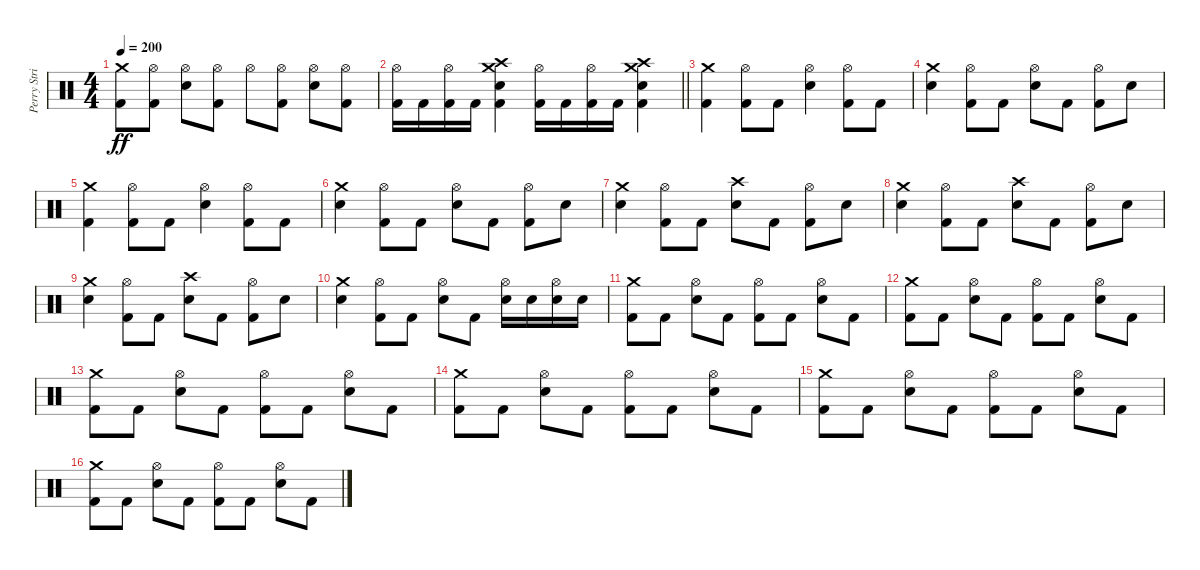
\track ("Perry Strickland" "Perry Stri") {instrument percussion}
\staff {score}
\articulation defaults
\ts (4 4)
\tempo 200
\clef neutral
\ks c
("Crash medium (hit)" "Kick (hit) 2").8{dy ff} ("Hi-Hat (open)" "Kick (hit) 2").8 ("Hi-Hat (open)" "Snare (hit) 2").8 ("Hi-Hat (open)" "Kick (hit) 2").8 "Hi-Hat (open)".8 ("Hi-Hat (open)" "Kick (hit) 2").8 ("Hi-Hat (open)" "Snare (hit) 2").8 ("Hi-Hat (open)" "Kick (hit) 2").8 |
\barLineRight lightlight
("Hi-Hat (open)" "Kick (hit) 2").16 "Kick (hit) 2".16 ("Hi-Hat (open)" "Kick (hit) 2").16 "Kick (hit) 2".16 ("Crash high (hit)" "Crash medium (hit)" "Snare (hit) 2" "Kick (hit) 2").4 ("Hi-Hat (open)" "Kick (hit) 2").16 "Kick (hit) 2".16 ("Hi-Hat (open)" "Kick (hit) 2").16 "Kick (hit) 2".16 ("Crash high (hit)" "Crash medium (hit)" "Snare (hit) 2" "Kick (hit) 2").4 |
("Crash medium (hit)" "Kick (hit) 2").4 ("Hi-Hat (open)" "Kick (hit) 2").8 "Kick (hit) 2".8 ("Hi-Hat (open)" "Snare (hit) 2").4 ("Hi-Hat (open)" "Kick (hit) 2").8 "Kick (hit) 2".8 |
("Crash medium (hit)" "Snare (hit) 2").4 ("Hi-Hat (open)" "Kick (hit) 2").8 "Kick (hit) 2".8 ("Hi-Hat (open)" "Snare (hit) 2").8 "Kick (hit) 2".8 ("Hi-Hat (open)" "Kick (hit) 2").8 "Snare (hit) 2".8 |
("Crash medium (hit)" "Kick (hit) 2").4 ("Hi-Hat (open)" "Kick (hit) 2").8 "Kick (hit) 2".8 ("Hi-Hat (open)" "Snare (hit) 2").4 ("Hi-Hat (open)" "Kick (hit) 2").8 "Kick (hit) 2".8 |
("Crash medium (hit)" "Snare (hit) 2").4 ("Hi-Hat (open)" "Kick (hit) 2").8 "Kick (hit) 2".8 ("Hi-Hat (open)" "Snare (hit) 2").8 "Kick (hit) 2".8 ("Hi-Hat (open)" "Kick (hit) 2").8 "Snare (hit) 2".8 |
("Crash medium (hit)" "Snare (hit) 2").4 ("Hi-Hat (open)" "Kick (hit) 2").8 "Kick (hit) 2".8 ("Crash high (hit)" "Snare (hit) 2").8 "Kick (hit) 2".8 ("Hi-Hat (open)" "Kick (hit) 2").8 "Snare (hit) 2".8 |
("Crash medium (hit)" "Snare (hit) 2").4 ("Hi-Hat (open)" "Kick (hit) 2").8 "Kick (hit) 2".8 ("Crash high (hit)" "Snare (hit) 2").8 "Kick (hit) 2".8 ("Hi-Hat (open)" "Kick (hit) 2").8 "Snare (hit) 2".8 |
("Crash medium (hit)" "Snare (hit) 2").4 ("Hi-Hat (open)" "Kick (hit) 2").8 "Kick (hit) 2".8 ("Crash high (hit)" "Snare (hit) 2").8 "Kick (hit) 2".8 ("Hi-Hat (open)" "Kick (hit) 2").8 "Snare (hit) 2".8 |
("Crash medium (hit)" "Snare (hit) 2").4 ("Hi-Hat (open)" "Kick (hit) 2").8 "Kick (hit) 2".8 ("Hi-Hat (open)" "Snare (hit) 2").8 "Kick (hit) 2".8 ("Hi-Hat (open)" "Snare (hit) 2").16 "Snare (hit) 2".16 ("Hi-Hat (open)" "Snare (hit) 2").16 "Snare (hit) 2".16 |
("Crash medium (hit)" "Kick (hit) 2").8 "Kick (hit) 2".8 ("Hi-Hat (open)" "Snare (hit) 2").8 "Kick (hit) 2".8 ("Hi-Hat (open)" "Kick (hit) 2").8 "Kick (hit) 2".8 ("Hi-Hat (open)" "Snare (hit) 2").8 "Kick (hit) 2".8 |
("Crash medium (hit)" "Kick (hit) 2").8 "Kick (hit) 2".8 ("Hi-Hat (open)" "Snare (hit) 2").8 "Kick (hit) 2".8 ("Hi-Hat (open)" "Kick (hit) 2").8 "Kick (hit) 2".8 ("Hi-Hat (open)" "Snare (hit) 2").8 "Kick (hit) 2".8 |
("Crash medium (hit)" "Kick (hit) 2").8 "Kick (hit) 2".8 ("Hi-Hat (open)" "Snare (hit) 2").8 "Kick (hit) 2".8 ("Hi-Hat (open)" "Kick (hit) 2").8 "Kick (hit) 2".8 ("Hi-Hat (open)" "Snare (hit) 2").8 "Kick (hit) 2".8 |
("Crash medium (hit)" "Kick (hit) 2").8 "Kick (hit) 2".8 ("Hi-Hat (open)" "Snare (hit) 2").8 "Kick (hit) 2".8 ("Hi-Hat (open)" "Kick (hit) 2").8 "Kick (hit) 2".8 ("Hi-Hat (open)" "Snare (hit) 2").8 "Kick (hit) 2".8 |
("Crash medium (hit)" "Kick (hit) 2").8 "Kick (hit) 2".8 ("Hi-Hat (open)" "Snare (hit) 2").8 "Kick (hit) 2".8 ("Hi-Hat (open)" "Kick (hit) 2").8 "Kick (hit) 2".8 ("Hi-Hat (open)" "Snare (hit) 2").8 "Kick (hit) 2".8 |
("Crash medium (hit)" "Kick (hit) 2").8 "Kick (hit) 2".8 ("Hi-Hat (open)" "Snare (hit) 2").8 "Kick (hit) 2".8 ("Hi-Hat (open)" "Kick (hit) 2").8 "Kick (hit) 2".8 ("Hi-Hat (open)" "Snare (hit) 2").8 "Kick (hit) 2".8
